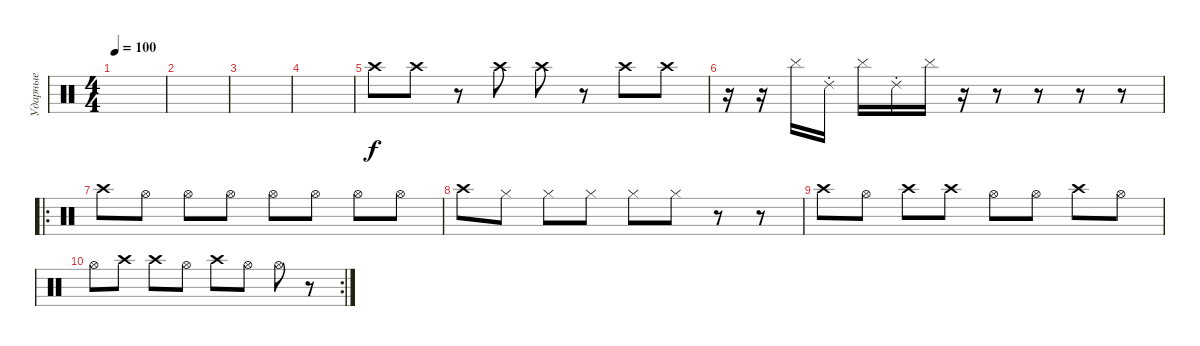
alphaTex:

\track ("Ударные" "Ударные") {instrument percussion}
\staff {score}
\articulation defaults
\ts (4 4)
\tempo 100
\clef neutral
\ks c
|
|
|
|
"Crash high (hit)".8 "Crash high (hit)".8 r.8 "Crash high (hit)".8 "Crash high (hit)".8 r.8 "Crash high (hit)".8 "Crash high (hit)".8 |
r.16 r.16 "Cymbal (hit)".16 "Ride (choke) 2".16 "Cymbal (hit)".16 "Ride (choke) 2".16 "Cymbal (hit)".16 r.16 r.8 r.8 r.8 r.8 |
\ro "Crash high (hit)".8 "Hi-Hat (open)".8 "Hi-Hat (open)".8 "Hi-Hat (open)".8 "Hi-Hat (open)".8 "Hi-Hat (open)".8 "Hi-Hat (open)".8 "Hi-Hat (open)".8
|
"Crash high (hit)".8 "Hi-Hat (closed)".8 "Hi-Hat (closed)".8 "Hi-Hat (closed)".8 "Hi-Hat (closed)".8 "Hi-Hat (closed)".8 r.8 r.8 |
"Crash high (hit)".8 "Hi-Hat (open)".8 "Crash high (hit)".8 "Crash high (hit)".8 "Hi-Hat (open)".8 "Hi-Hat (open)".8 "Crash high (hit)".8 "Hi-Hat (open)".8 |
\rc 2 "Hi-Hat (open)".8 "Crash high (hit)".8 "Crash high (hit)".8 "Hi-Hat (open)".8 "Crash high (hit)".8 "Hi-Hat (open)".8 "Hi-Hat (open)".8
r.8
